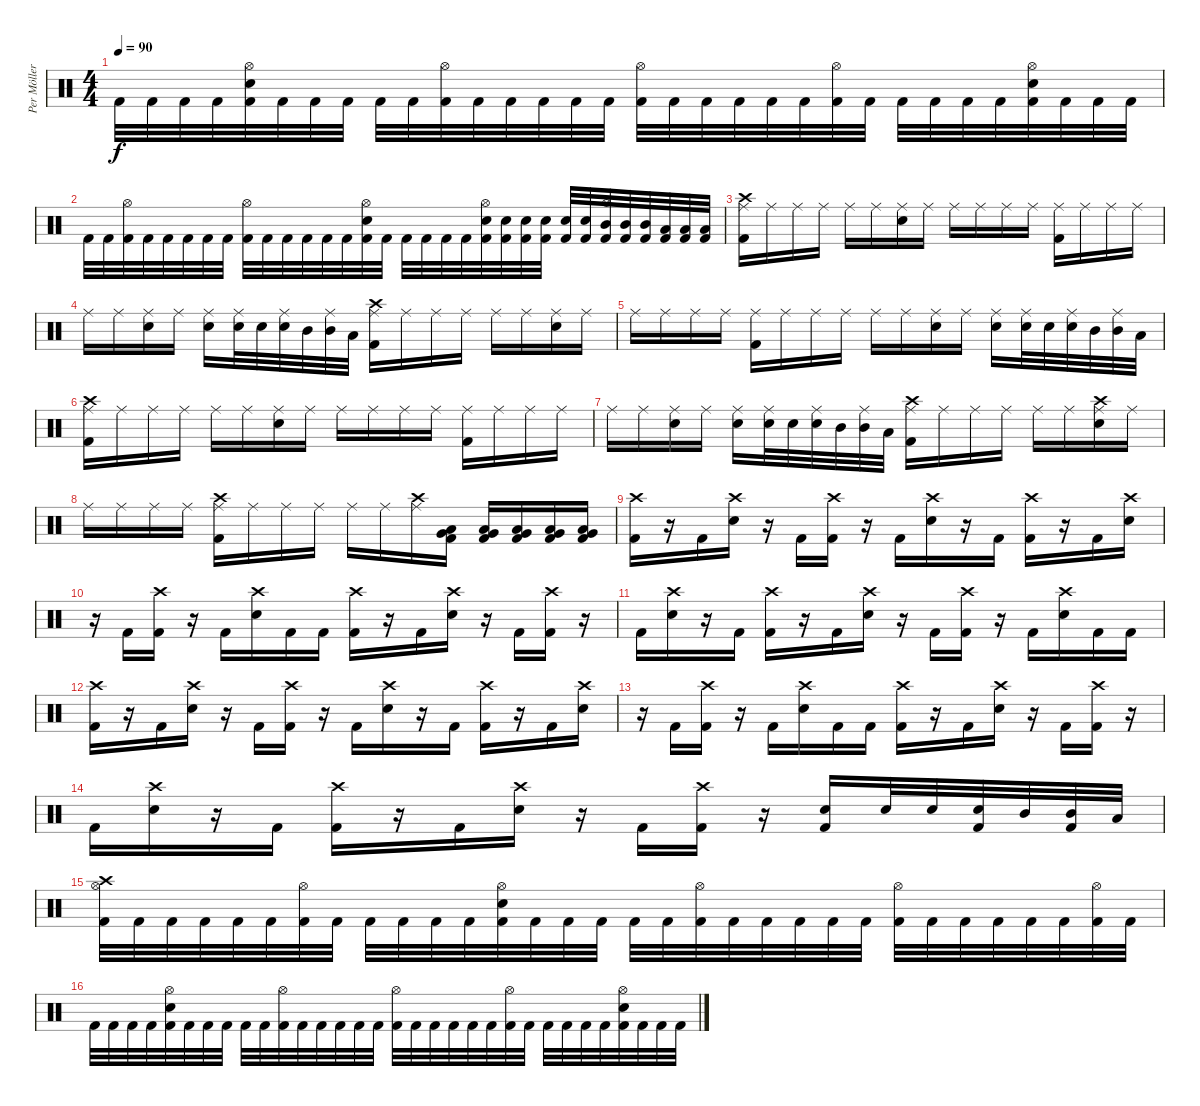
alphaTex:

\track ("Per Möller-Jensen" "Per Möller") {instrument percussion}
\staff {score}
\articulation defaults
\ts (4 4)
\tempo 90
\clef neutral
\ks c "Kick (hit) 2".32{dy f} "Kick (hit) 2".32 "Kick (hit) 2".32 "Kick (hit) 2".32
("Snare (hit) 2" "Hi-Hat (open)" "Kick (hit) 2").32 "Kick (hit) 2".32 "Kick (hit) 2".32 "Kick (hit) 2".32 "Kick (hit) 2".32 "Kick (hit) 2".32 ("Hi-Hat (open)" "Kick (hit) 2").32 "Kick (hit) 2".32 "Kick (hit) 2".32 "Kick (hit) 2".32 "Kick (hit) 2".32 "Kick (hit) 2".32 ("Hi-Hat (open)" "Kick (hit) 2").32 "Kick (hit) 2".32 "Kick (hit) 2".32 "Kick (hit) 2".32 "Kick (hit) 2".32 "Kick (hit) 2".32 ("Hi-Hat (open)" "Kick (hit) 2").32 "Kick (hit) 2".32 "Kick (hit) 2".32 "Kick (hit) 2".32 "Kick (hit) 2".32 "Kick (hit) 2".32 ("Snare (hit) 2" "Hi-Hat (open)" "Kick (hit) 2").32 "Kick (hit) 2".32 "Kick (hit) 2".32 "Kick (hit) 2".32 |
"Kick (hit) 2".32 "Kick (hit) 2".32 ("Hi-Hat (open)" "Kick (hit) 2").32 "Kick (hit) 2".32 "Kick (hit) 2".32 "Kick (hit) 2".32 "Kick (hit) 2".32 "Kick (hit) 2".32 ("Hi-Hat (open)" "Kick (hit) 2").32 "Kick (hit) 2".32 "Kick (hit) 2".32 "Kick (hit) 2".32 "Kick (hit) 2".32 "Kick (hit) 2".32 ("Snare (hit) 2" "Hi-Hat (open)" "Kick (hit) 2").32 "Kick (hit) 2".32 "Kick (hit) 2".32 "Kick (hit) 2".32 "Kick (hit) 2".32 "Kick (hit) 2".32 ("Snare (hit) 2" "Hi-Hat (open)" "Kick (hit) 2").32 ("Snare (hit) 2" "Kick (hit) 2").32 ("Snare (hit) 2" "Kick (hit) 2").32 ("Snare (hit) 2" "Kick (hit) 2").32 ("Snare (hit) 2" "Kick (hit) 2").32 ("Snare (hit) 2" "Kick (hit) 2").32 ("Mid Tom (hit)" "Hi-Hat (open)" "Kick (hit) 2").32 ("Mid Tom (hit)" "Kick (hit) 2").32 ("Mid Tom (hit)" "Kick (hit) 2").32 ("Low Tom (hit)" "Kick (hit) 2").32 ("Low Tom (hit)" "Kick (hit) 2").32 ("Low Tom (hit)" "Kick (hit) 2").32 |
("Crash high (hit)" "Ride (middle)" "Kick (hit) 2").16 "Ride (middle)".16 "Ride (middle)".16 "Ride (middle)".16 "Ride (middle)".16 "Ride (middle)".16 ("Snare (hit) 2" "Ride (middle)").16 "Ride (middle)".16 "Ride (middle)".16 "Ride (middle)".16 "Ride (middle)".16 "Ride (middle)".16 ("Ride (middle)" "Kick (hit) 2").16 "Ride (middle)".16 "Ride (middle)".16 "Ride (middle)".16 |
"Ride (middle)".16 "Ride (middle)".16 ("Snare (hit) 2" "Ride (middle)").16 "Ride (middle)".16 ("Snare (hit) 2" "Ride (middle)").16 ("Snare (hit) 2" "Ride (middle)").32 "Snare (hit) 2".32 ("Snare (hit) 2" "Ride (middle)").32 "Mid Tom (hit)".32 ("Mid Tom (hit)" "Ride (middle)").32 "Low Tom (hit)".32 ("Crash high (hit)" "Ride (middle)" "Kick (hit) 2").16 "Ride (middle)".16 "Ride (middle)".16 "Ride (middle)".16 "Ride (middle)".16 "Ride (middle)".16 ("Snare (hit) 2" "Ride (middle)").16 "Ride (middle)".16 |
"Ride (middle)".16 "Ride (middle)".16 "Ride (middle)".16 "Ride (middle)".16 ("Ride (middle)" "Kick (hit) 2").16 "Ride (middle)".16 "Ride (middle)".16 "Ride (middle)".16 "Ride (middle)".16 "Ride (middle)".16 ("Snare (hit) 2" "Ride (middle)").16 "Ride (middle)".16 ("Snare (hit) 2" "Ride (middle)").16 ("Snare (hit) 2" "Ride (middle)").32 "Snare (hit) 2".32 ("Snare (hit) 2" "Ride (middle)").32 "Mid Tom (hit)".32 ("Mid Tom (hit)" "Ride (middle)").32 "Low Tom (hit)".32 |
("Crash high (hit)" "Ride (middle)" "Kick (hit) 2").16 "Ride (middle)".16 "Ride (middle)".16 "Ride (middle)".16 "Ride (middle)".16 "Ride (middle)".16 ("Snare (hit) 2" "Ride (middle)").16 "Ride (middle)".16 "Ride (middle)".16 "Ride (middle)".16 "Ride (middle)".16 "Ride (middle)".16 ("Ride (middle)" "Kick (hit) 2").16 "Ride (middle)".16 "Ride (middle)".16 "Ride (middle)".16 |
"Ride (middle)".16 "Ride (middle)".16 ("Snare (hit) 2" "Ride (middle)").16 "Ride (middle)".16 ("Snare (hit) 2" "Ride (middle)").16 ("Snare (hit) 2" "Ride (middle)").32 "Snare (hit) 2".32 ("Snare (hit) 2" "Ride (middle)").32 "Mid Tom (hit)".32 ("Mid Tom (hit)" "Ride (middle)").32 "Low Tom (hit)".32 ("Crash high (hit)" "Ride (middle)" "Kick (hit) 2").16 "Ride (middle)".16 "Ride (middle)".16 "Ride (middle)".16 "Ride (middle)".16 "Ride (middle)".16 ("Crash high (hit)" "Snare (hit) 2" "Ride (middle)").16 "Ride (middle)".16 |
"Ride (middle)".16 "Ride (middle)".16 "Ride (middle)".16 "Ride (middle)".16 ("Crash high (hit)" "Ride (middle)" "Kick (hit) 2").16 "Ride (middle)".16 "Ride (middle)".16 "Ride (middle)".16 "Ride (middle)".16 "Ride (middle)".16 ("Crash high (hit)" "Ride (middle)").16 ("Very Low Tom (hit)" "Low Tom (hit)" "Kick (hit) 2").16 ("Very Low Tom (hit)" "Low Tom (hit)" "Kick (hit) 2").16 ("Very Low Tom (hit)" "Low Tom (hit)" "Kick (hit) 2").16 ("Very Low Tom (hit)" "Low Tom (hit)" "Kick (hit) 2").16 ("Very Low Tom (hit)" "Low Tom (hit)" "Kick (hit) 2").16 |
("Crash high (hit)" "Kick (hit) 2").16 r.16 "Kick (hit) 2".16 ("Crash high (hit)" "Snare (hit) 2").16 r.16 "Kick (hit) 2".16 ("Crash high (hit)" "Kick (hit) 2").16 r.16 "Kick (hit) 2".16 ("Crash high (hit)" "Snare (hit) 2").16 r.16 "Kick (hit) 2".16 ("Crash high (hit)" "Kick (hit) 2").16 r.16 "Kick (hit) 2".16 ("Crash high (hit)" "Snare (hit) 2").16 |
r.16 "Kick (hit) 2".16 ("Crash high (hit)" "Kick (hit) 2").16 r.16 "Kick (hit) 2".16 ("Crash high (hit)" "Snare (hit) 2").16 "Kick (hit) 2".16 "Kick (hit) 2".16 ("Crash high (hit)" "Kick (hit) 2").16 r.16 "Kick (hit) 2".16 ("Crash high (hit)" "Snare (hit) 2").16 r.16 "Kick (hit) 2".16 ("Crash high (hit)" "Kick (hit) 2").16 r.16 |
"Kick (hit) 2".16 ("Crash high (hit)" "Snare (hit) 2").16 r.16 "Kick (hit) 2".16 ("Crash high (hit)" "Kick (hit) 2").16 r.16 "Kick (hit) 2".16 ("Crash high (hit)" "Snare (hit) 2").16 r.16 "Kick (hit) 2".16 ("Crash high (hit)" "Kick (hit) 2").16 r.16 "Kick (hit) 2".16 ("Crash high (hit)" "Snare (hit) 2").16 "Kick (hit) 2".16 "Kick (hit) 2".16 |
("Crash high (hit)" "Kick (hit) 2").16 r.16 "Kick (hit) 2".16 ("Crash high (hit)" "Snare (hit) 2").16 r.16 "Kick (hit) 2".16 ("Crash high (hit)" "Kick (hit) 2").16 r.16 "Kick (hit) 2".16 ("Crash high (hit)" "Snare (hit) 2").16 r.16 "Kick (hit) 2".16 ("Crash high (hit)" "Kick (hit) 2").16 r.16 "Kick (hit) 2".16 ("Crash high (hit)" "Snare (hit) 2").16 |
r.16 "Kick (hit) 2".16 ("Crash high (hit)" "Kick (hit) 2").16 r.16 "Kick (hit) 2".16 ("Crash high (hit)" "Snare (hit) 2").16 "Kick (hit) 2".16 "Kick (hit) 2".16 ("Crash high (hit)" "Kick (hit) 2").16 r.16 "Kick (hit) 2".16 ("Crash high (hit)" "Snare (hit) 2").16 r.16 "Kick (hit) 2".16 ("Crash high (hit)" "Kick (hit) 2").16 r.16 |
"Kick (hit) 2".16 ("Crash high (hit)" "Snare (hit) 2").16 r.16 "Kick (hit) 2".16 ("Crash high (hit)" "Kick (hit) 2").16 r.16 "Kick (hit) 2".16 ("Crash high (hit)" "Snare (hit) 2").16 r.16 "Kick (hit) 2".16 ("Crash high (hit)" "Kick (hit) 2").16 r.16 ("Snare (hit) 2" "Kick (hit) 2").16 "Snare (hit) 2".32 "Snare (hit) 2".32 ("Snare (hit) 2" "Kick (hit) 2").32 "Mid Tom (hit)".32 ("Mid Tom (hit)" "Kick (hit) 2").32 "Low Tom (hit)".32 |
("Crash high (hit)" "Hi-Hat (open)" "Kick (hit) 2").32 "Kick (hit) 2".32 "Kick (hit) 2".32 "Kick (hit) 2".32 "Kick (hit) 2".32 "Kick (hit) 2".32 ("Hi-Hat (open)" "Kick (hit) 2").32 "Kick (hit) 2".32 "Kick (hit) 2".32 "Kick (hit) 2".32 "Kick (hit) 2".32 "Kick (hit) 2".32 ("Snare (hit) 2" "Hi-Hat (open)" "Kick (hit) 2").32 "Kick (hit) 2".32 "Kick (hit) 2".32 "Kick (hit) 2".32 "Kick (hit) 2".32 "Kick (hit) 2".32 ("Hi-Hat (open)" "Kick (hit) 2").32 "Kick (hit) 2".32 "Kick (hit) 2".32 "Kick (hit) 2".32 "Kick (hit) 2".32 "Kick (hit) 2".32 ("Hi-Hat (open)" "Kick (hit) 2").32 "Kick (hit) 2".32 "Kick (hit) 2".32 "Kick (hit) 2".32 "Kick (hit) 2".32 "Kick (hit) 2".32 ("Hi-Hat (open)" "Kick (hit) 2").32 "Kick (hit) 2".32 |
"Kick (hit) 2".32 "Kick (hit) 2".32 "Kick (hit) 2".32 "Kick (hit) 2".32 ("Snare (hit) 2" "Hi-Hat (open)" "Kick (hit) 2").32 "Kick (hit) 2".32 "Kick (hit) 2".32 "Kick (hit) 2".32 "Kick (hit) 2".32 "Kick (hit) 2".32 ("Hi-Hat (open)" "Kick (hit) 2").32 "Kick (hit) 2".32 "Kick (hit) 2".32 "Kick (hit) 2".32 "Kick (hit) 2".32 "Kick (hit) 2".32 ("Hi-Hat (open)" "Kick (hit) 2").32 "Kick (hit) 2".32 "Kick (hit) 2".32 "Kick (hit) 2".32 "Kick (hit) 2".32 "Kick (hit) 2".32 ("Hi-Hat (open)" "Kick (hit) 2").32 "Kick (hit) 2".32 "Kick (hit) 2".32 "Kick (hit) 2".32 "Kick (hit) 2".32 "Kick (hit) 2".32 ("Snare (hit) 2" "Hi-Hat (open)" "Kick (hit) 2").32 "Kick (hit) 2".32 "Kick (hit) 2".32 "Kick (hit) 2".32
